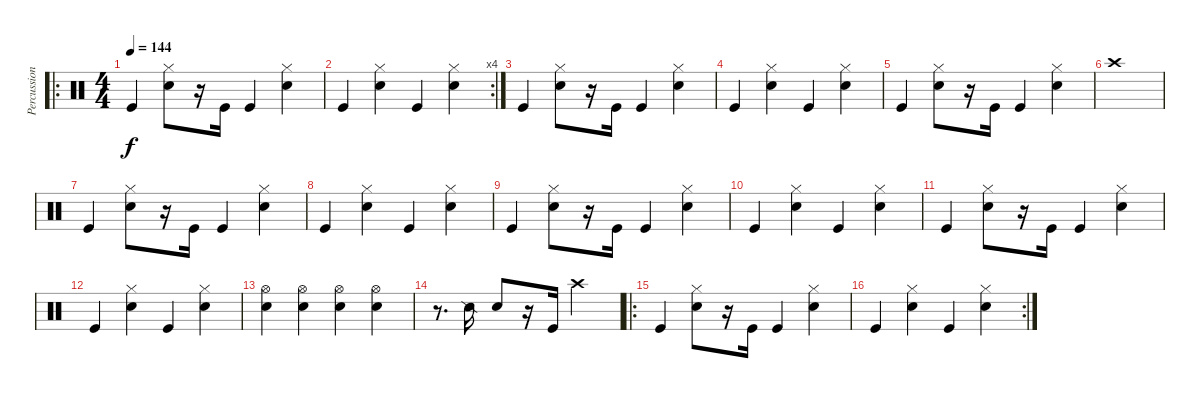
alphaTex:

\track ("Percussions" "Percussion") {instrument percussion}
\staff {score}
\articulation defaults
\ro
\ts (4 4)
\tempo 144
\clef neutral
\ks c "Kick (hit)".4{dy f}
("Hi-Hat (closed)" "Electric Snare (hit)").8 r.16 "Kick (hit)".16 "Kick (hit)".4 ("Hi-Hat (closed)" "Electric Snare (hit)").4 |
\rc 4 "Kick (hit)".4
("Hi-Hat (closed)" "Electric Snare (hit)").4 "Kick (hit)".4 ("Hi-Hat (closed)" "Electric Snare (hit)").4 |
"Kick (hit)".4 ("Hi-Hat (closed)" "Electric Snare (hit)").8 r.16 "Kick (hit)".16 "Kick (hit)".4 ("Hi-Hat (closed)" "Electric Snare (hit)").4 |
"Kick (hit)".4 ("Hi-Hat (closed)" "Electric Snare (hit)").4 "Kick (hit)".4 ("Hi-Hat (closed)" "Electric Snare (hit)").4 |
"Kick (hit)".4 ("Hi-Hat (closed)" "Electric Snare (hit)").8 r.16 "Kick (hit)".16 "Kick (hit)".4 ("Hi-Hat (closed)" "Electric Snare (hit)").4 |
"Crash high (hit)".1 |
"Kick (hit)".4 ("Hi-Hat (closed)" "Electric Snare (hit)").8 r.16 "Kick (hit)".16 "Kick (hit)".4 ("Hi-Hat (closed)" "Electric Snare (hit)").4 |
"Kick (hit)".4 ("Hi-Hat (closed)" "Electric Snare (hit)").4 "Kick (hit)".4 ("Hi-Hat (closed)" "Electric Snare (hit)").4 |
"Kick (hit)".4 ("Hi-Hat (closed)" "Electric Snare (hit)").8 r.16 "Kick (hit)".16 "Kick (hit)".4 ("Hi-Hat (closed)" "Electric Snare (hit)").4 |
"Kick (hit)".4 ("Hi-Hat (closed)" "Electric Snare (hit)").4 "Kick (hit)".4 ("Hi-Hat (closed)" "Electric Snare (hit)").4 |
"Kick (hit)".4 ("Hi-Hat (closed)" "Electric Snare (hit)").8 r.16 "Kick (hit)".16 "Kick (hit)".4 ("Hi-Hat (closed)" "Electric Snare (hit)").4 |
"Kick (hit)".4 ("Hi-Hat (closed)" "Electric Snare (hit)").4 "Kick (hit)".4 ("Hi-Hat (closed)" "Electric Snare (hit)").4 |
("Electric Snare (hit)" "Hi-Hat (open)").4 ("Electric Snare (hit)" "Hi-Hat (open)").4 ("Electric Snare (hit)" "Hi-Hat (open)").4 ("Electric Snare (hit)" "Hi-Hat (open)").4 |
r.8{d} "Snare (side stick) 2".16 "Snare (hit) 2".8 r.16 "Kick (hit)".16 "Crash high (hit)".2 |
\ro "Kick (hit)".4
("Hi-Hat (closed)" "Electric Snare (hit)").8 r.16 "Kick (hit)".16 "Kick (hit)".4 ("Hi-Hat (closed)" "Electric Snare (hit)").4 |
\rc 2 "Kick (hit)".4
("Hi-Hat (closed)" "Electric Snare (hit)").4 "Kick (hit)".4 ("Hi-Hat (closed)" "Electric Snare (hit)").4
